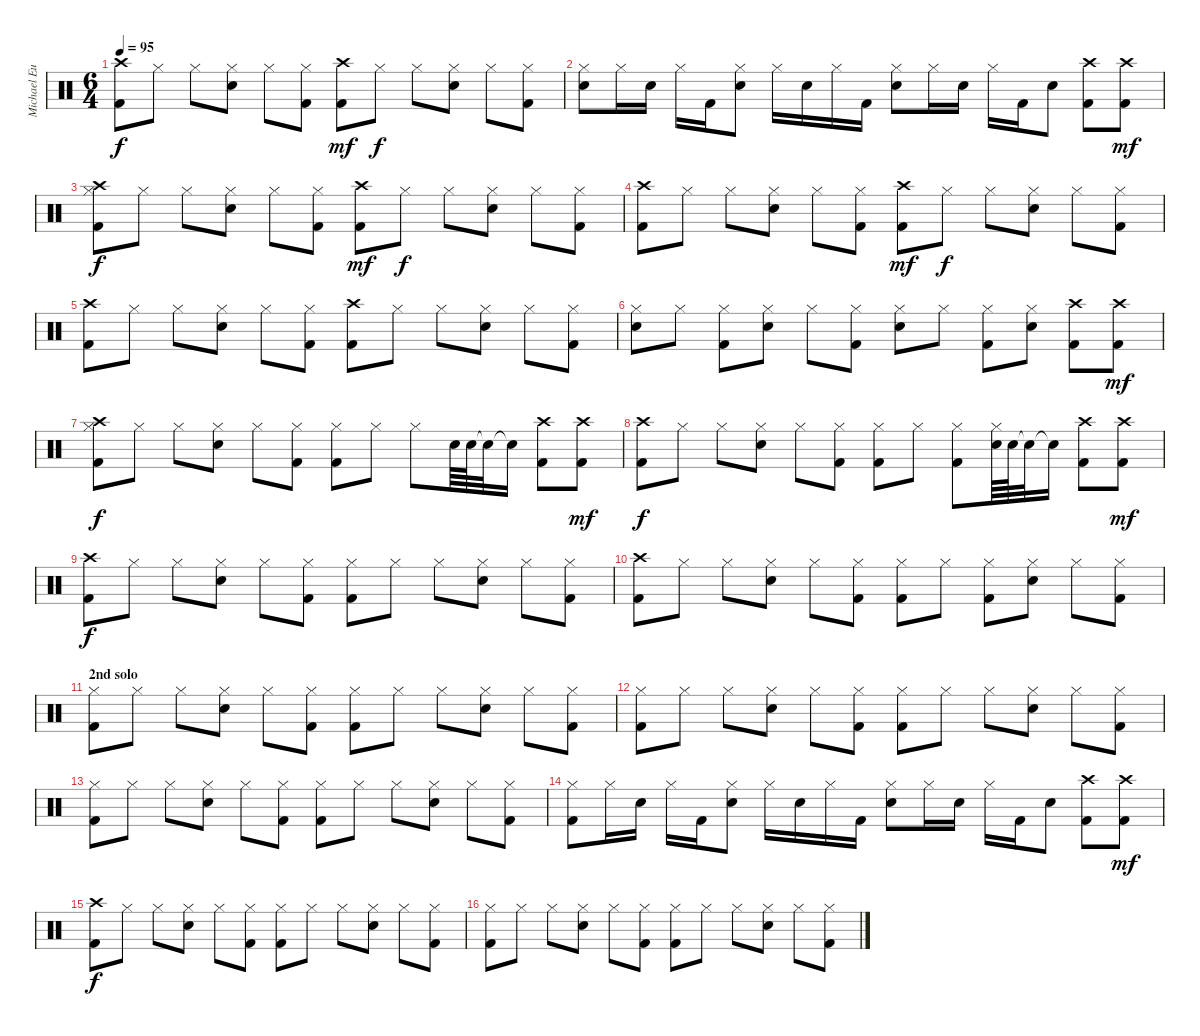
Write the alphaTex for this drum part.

\track ("Michael Eurich" "Michael Eu") {instrument percussion}
\staff {score}
\articulation defaults
\ts (6 4)
\tempo 95
\clef neutral
\ks c
("Kick (hit) 2" "Crash high (hit)").8{dy f} "Hi-Hat (closed)".8 "Hi-Hat (closed)".8 ("Hi-Hat (closed)" "Snare (hit) 2").8 "Hi-Hat (closed)".8 ("Kick (hit) 2" "Hi-Hat (closed)").8 ("Kick (hit) 2" "Crash high (hit)").8{dy mf} "Hi-Hat (closed)".8{dy f} "Hi-Hat (closed)".8 ("Hi-Hat (closed)" "Snare (hit) 2").8 "Hi-Hat (closed)".8 ("Kick (hit) 2" "Hi-Hat (closed)").8 |
("Hi-Hat (closed)" "Snare (hit) 2").8 "Hi-Hat (closed)".16 "Snare (hit) 2".16 "Hi-Hat (closed)".16 "Kick (hit) 2".16 ("Hi-Hat (closed)" "Snare (hit) 2").8 "Hi-Hat (closed)".16 "Snare (hit) 2".16 "Hi-Hat (closed)".16 "Kick (hit) 2".16 ("Hi-Hat (closed)" "Snare (hit) 2").8 "Hi-Hat (closed)".16 "Snare (hit) 2".16 "Hi-Hat (closed)".16 "Kick (hit) 2".16 "Snare (hit) 2".8 ("Kick (hit) 2" "Crash high (hit)").8 ("Kick (hit) 2" "Crash high (hit)").8{dy mf} |
("Kick (hit) 2" "Hi-Hat (closed)" "Crash high (hit)").8{dy f} "Hi-Hat (closed)".8 "Hi-Hat (closed)".8 ("Hi-Hat (closed)" "Snare (hit) 2").8 "Hi-Hat (closed)".8 ("Kick (hit) 2" "Hi-Hat (closed)").8 ("Kick (hit) 2" "Crash high (hit)").8{dy mf} "Hi-Hat (closed)".8{dy f} "Hi-Hat (closed)".8 ("Hi-Hat (closed)" "Snare (hit) 2").8 "Hi-Hat (closed)".8 ("Kick (hit) 2" "Hi-Hat (closed)").8 |
("Kick (hit) 2" "Crash high (hit)").8 "Hi-Hat (closed)".8 "Hi-Hat (closed)".8 ("Hi-Hat (closed)" "Snare (hit) 2").8 "Hi-Hat (closed)".8 ("Kick (hit) 2" "Hi-Hat (closed)").8 ("Kick (hit) 2" "Crash high (hit)").8{dy mf} "Hi-Hat (closed)".8{dy f} "Hi-Hat (closed)".8 ("Hi-Hat (closed)" "Snare (hit) 2").8 "Hi-Hat (closed)".8 ("Kick (hit) 2" "Hi-Hat (closed)").8 |
("Kick (hit) 2" "Crash high (hit)").8 "Hi-Hat (closed)".8 "Hi-Hat (closed)".8 ("Hi-Hat (closed)" "Snare (hit) 2").8 "Hi-Hat (closed)".8 ("Kick (hit) 2" "Hi-Hat (closed)").8 ("Kick (hit) 2" "Crash high (hit)").8 "Hi-Hat (closed)".8 "Hi-Hat (closed)".8 ("Hi-Hat (closed)" "Snare (hit) 2").8 "Hi-Hat (closed)".8 ("Kick (hit) 2" "Hi-Hat (closed)").8 |
("Hi-Hat (closed)" "Snare (hit) 2").8 "Hi-Hat (closed)".8 ("Kick (hit) 2" "Hi-Hat (closed)").8 ("Hi-Hat (closed)" "Snare (hit) 2").8 "Hi-Hat (closed)".8 ("Kick (hit) 2" "Hi-Hat (closed)").8 ("Hi-Hat (closed)" "Snare (hit) 2").8 "Hi-Hat (closed)".8 ("Kick (hit) 2" "Hi-Hat (closed)").8 ("Hi-Hat (closed)" "Snare (hit) 2").8 ("Kick (hit) 2" "Crash high (hit)").8 ("Kick (hit) 2" "Crash high (hit)").8{dy mf} |
("Kick (hit) 2" "Hi-Hat (closed)" "Crash high (hit)").8{dy f} "Hi-Hat (closed)".8 "Hi-Hat (closed)".8 ("Hi-Hat (closed)" "Snare (hit) 2").8 "Hi-Hat (closed)".8 ("Kick (hit) 2" "Hi-Hat (closed)").8 ("Kick (hit) 2" "Hi-Hat (closed)").8 "Hi-Hat (closed)".8 "Hi-Hat (closed)".8 "Snare (hit) 2".64 "Snare (hit) 2".64 "Snare (hit)"{t}.32 "Snare (hit)"{t}.16 ("Kick (hit) 2" "Crash high (hit)").8 ("Kick (hit) 2" "Crash high (hit)").8{dy mf} |
("Kick (hit) 2" "Crash high (hit)").8{dy f} "Hi-Hat (closed)".8 "Hi-Hat (closed)".8 ("Hi-Hat (closed)" "Snare (hit) 2").8 "Hi-Hat (closed)".8 ("Kick (hit) 2" "Hi-Hat (closed)").8 ("Kick (hit) 2" "Hi-Hat (closed)").8 "Hi-Hat (closed)".8 ("Kick (hit) 2" "Hi-Hat (closed)").8 ("Hi-Hat (closed)" "Snare (hit) 2").64 "Snare (hit) 2".64 "Snare (hit)"{t}.32 "Snare (hit)"{t}.16 ("Kick (hit) 2" "Crash high (hit)").8 ("Kick (hit) 2" "Crash high (hit)").8{dy mf} |
("Kick (hit) 2" "Crash high (hit)").8{dy f} "Hi-Hat (closed)".8 "Hi-Hat (closed)".8 ("Hi-Hat (closed)" "Snare (hit) 2").8 "Hi-Hat (closed)".8 ("Kick (hit) 2" "Hi-Hat (closed)").8 ("Kick (hit) 2" "Hi-Hat (closed)").8 "Hi-Hat (closed)".8 "Hi-Hat (closed)".8 ("Hi-Hat (closed)" "Snare (hit) 2").8 "Hi-Hat (closed)".8 ("Kick (hit) 2" "Hi-Hat (closed)").8 |
("Kick (hit) 2" "Crash high (hit)").8 "Hi-Hat (closed)".8 "Hi-Hat (closed)".8 ("Hi-Hat (closed)" "Snare (hit) 2").8 "Hi-Hat (closed)".8 ("Kick (hit) 2" "Hi-Hat (closed)").8 ("Kick (hit) 2" "Hi-Hat (closed)").8 "Hi-Hat (closed)".8 ("Kick (hit) 2" "Hi-Hat (closed)").8 ("Hi-Hat (closed)" "Snare (hit) 2").8 "Hi-Hat (closed)".8 ("Kick (hit) 2" "Hi-Hat (closed)").8 |
\section ("" "2nd solo")
("Kick (hit) 2" "Hi-Hat (closed)").8 "Hi-Hat (closed)".8 "Hi-Hat (closed)".8 ("Hi-Hat (closed)" "Snare (hit) 2").8 "Hi-Hat (closed)".8 ("Kick (hit) 2" "Hi-Hat (closed)").8 ("Kick (hit) 2" "Hi-Hat (closed)").8 "Hi-Hat (closed)".8 "Hi-Hat (closed)".8 ("Hi-Hat (closed)" "Snare (hit) 2").8 "Hi-Hat (closed)".8 ("Kick (hit) 2" "Hi-Hat (closed)").8 |
("Kick (hit) 2" "Hi-Hat (closed)").8 "Hi-Hat (closed)".8 "Hi-Hat (closed)".8 ("Hi-Hat (closed)" "Snare (hit) 2").8 "Hi-Hat (closed)".8 ("Kick (hit) 2" "Hi-Hat (closed)").8 ("Kick (hit) 2" "Hi-Hat (closed)").8 "Hi-Hat (closed)".8 "Hi-Hat (closed)".8 ("Hi-Hat (closed)" "Snare (hit) 2").8 "Hi-Hat (closed)".8 ("Kick (hit) 2" "Hi-Hat (closed)").8 |
("Kick (hit) 2" "Hi-Hat (closed)").8 "Hi-Hat (closed)".8 "Hi-Hat (closed)".8 ("Hi-Hat (closed)" "Snare (hit) 2").8 "Hi-Hat (closed)".8 ("Kick (hit) 2" "Hi-Hat (closed)").8 ("Kick (hit) 2" "Hi-Hat (closed)").8 "Hi-Hat (closed)".8 "Hi-Hat (closed)".8 ("Hi-Hat (closed)" "Snare (hit) 2").8 "Hi-Hat (closed)".8 ("Kick (hit) 2" "Hi-Hat (closed)").8 |
("Kick (hit) 2" "Hi-Hat (closed)").8 "Hi-Hat (closed)".16 "Snare (hit) 2".16 "Hi-Hat (closed)".16 "Kick (hit) 2".16 ("Hi-Hat (closed)" "Snare (hit) 2").8 "Hi-Hat (closed)".16 "Snare (hit) 2".16 "Hi-Hat (closed)".16 "Kick (hit) 2".16 ("Hi-Hat (closed)" "Snare (hit) 2").8 "Hi-Hat (closed)".16 "Snare (hit) 2".16 "Hi-Hat (closed)".16 "Kick (hit) 2".16 "Snare (hit) 2".8 ("Kick (hit) 2" "Crash high (hit)").8 ("Kick (hit) 2" "Crash high (hit)").8{dy mf} |
("Kick (hit) 2" "Crash high (hit)").8{dy f} "Hi-Hat (closed)".8 "Hi-Hat (closed)".8 ("Hi-Hat (closed)" "Snare (hit) 2").8 "Hi-Hat (closed)".8 ("Kick (hit) 2" "Hi-Hat (closed)").8 ("Kick (hit) 2" "Hi-Hat (closed)").8 "Hi-Hat (closed)".8 "Hi-Hat (closed)".8 ("Hi-Hat (closed)" "Snare (hit) 2").8 "Hi-Hat (closed)".8 ("Kick (hit) 2" "Hi-Hat (closed)").8 |
("Kick (hit) 2" "Hi-Hat (closed)").8 "Hi-Hat (closed)".8 "Hi-Hat (closed)".8 ("Hi-Hat (closed)" "Snare (hit) 2").8 "Hi-Hat (closed)".8 ("Kick (hit) 2" "Hi-Hat (closed)").8 ("Kick (hit) 2" "Hi-Hat (closed)").8 "Hi-Hat (closed)".8 "Hi-Hat (closed)".8 ("Hi-Hat (closed)" "Snare (hit) 2").8 "Hi-Hat (closed)".8 ("Kick (hit) 2" "Hi-Hat (closed)").8
